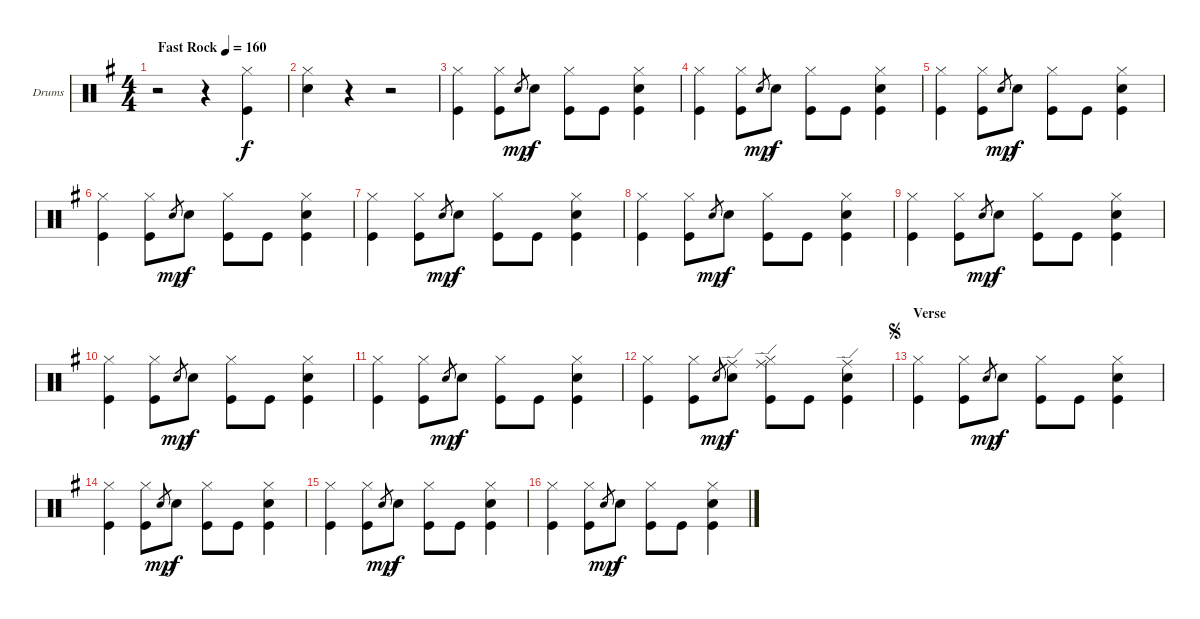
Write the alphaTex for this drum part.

\defaultSystemsLayout 4
\bracketExtendMode groupsimilarinstruments
\firstSystemTrackNameOrientation horizontal
\otherSystemsTrackNameOrientation horizontal
\track ("Drumkit" "Drums") {instrument percussion}
\staff {score}
\articulation defaults
\ts (4 4)
\tempo (160 "Fast Rock")
\clef neutral
\scale
1.07314
\ks g
r.2{dy f} r.4 ("Hi-Hat (closed)" "Kick (hit)").4 |
\scale
0.92686 ("Hi-Hat (closed)" "Snare (hit) 2").4 r.4 r.2 |
\scale
1.04288 ("Hi-Hat (closed)" "Kick (hit)").4 ("Hi-Hat (closed)" "Kick (hit)").8 "Snare (hit) 2".8{gr dy mp} "Snare (hit) 2".8{dy f} ("Hi-Hat (closed)" "Kick (hit)").8 "Kick (hit)".8 ("Hi-Hat (closed)" "Snare (hit) 2" "Kick (hit)").4 |
\scale
0.957125 ("Hi-Hat (closed)" "Kick (hit)").4 ("Hi-Hat (closed)" "Kick (hit)").8 "Snare (hit) 2".8{gr dy mp} "Snare (hit) 2".8{dy f} ("Hi-Hat (closed)" "Kick (hit)").8 "Kick (hit)".8 ("Hi-Hat (closed)" "Snare (hit) 2" "Kick (hit)").4 |
\scale
1.04288 ("Hi-Hat (closed)" "Kick (hit)").4 ("Hi-Hat (closed)" "Kick (hit)").8 "Snare (hit) 2".8{gr dy mp} "Snare (hit) 2".8{dy f} ("Hi-Hat (closed)" "Kick (hit)").8 "Kick (hit)".8 ("Hi-Hat (closed)" "Snare (hit) 2" "Kick (hit)").4 |
\scale
0.957125 ("Hi-Hat (closed)" "Kick (hit)").4 ("Hi-Hat (closed)" "Kick (hit)").8 "Snare (hit) 2".8{gr dy mp} "Snare (hit) 2".8{dy f} ("Hi-Hat (closed)" "Kick (hit)").8 "Kick (hit)".8 ("Hi-Hat (closed)" "Snare (hit) 2" "Kick (hit)").4 |
\scale
1.04288 ("Hi-Hat (closed)" "Kick (hit)").4 ("Hi-Hat (closed)" "Kick (hit)").8 "Snare (hit) 2".8{gr dy mp} "Snare (hit) 2".8{dy f} ("Hi-Hat (closed)" "Kick (hit)").8 "Kick (hit)".8 ("Hi-Hat (closed)" "Snare (hit) 2" "Kick (hit)").4 |
\scale
0.957125 ("Hi-Hat (closed)" "Kick (hit)").4 ("Hi-Hat (closed)" "Kick (hit)").8 "Snare (hit) 2".8{gr dy mp} "Snare (hit) 2".8{dy f} ("Hi-Hat (closed)" "Kick (hit)").8 "Kick (hit)".8 ("Hi-Hat (closed)" "Snare (hit) 2" "Kick (hit)").4 |
\scale
1.04288 ("Hi-Hat (closed)" "Kick (hit)").4 ("Hi-Hat (closed)" "Kick (hit)").8 "Snare (hit) 2".8{gr dy mp} "Snare (hit) 2".8{dy f} ("Hi-Hat (closed)" "Kick (hit)").8 "Kick (hit)".8 ("Hi-Hat (closed)" "Snare (hit) 2" "Kick (hit)").4 |
\scale
0.957125 ("Hi-Hat (closed)" "Kick (hit)").4 ("Hi-Hat (closed)" "Kick (hit)").8 "Snare (hit) 2".8{gr dy mp} "Snare (hit) 2".8{dy f} ("Hi-Hat (closed)" "Kick (hit)").8 "Kick (hit)".8 ("Hi-Hat (closed)" "Snare (hit) 2" "Kick (hit)").4 |
\scale
1.04288 ("Hi-Hat (closed)" "Kick (hit)").4 ("Hi-Hat (closed)" "Kick (hit)").8 "Snare (hit) 2".8{gr dy mp} "Snare (hit) 2".8{dy f} ("Hi-Hat (closed)" "Kick (hit)").8 "Kick (hit)".8 ("Hi-Hat (closed)" "Snare (hit) 2" "Kick (hit)").4 |
\scale
0.957125 ("Hi-Hat (closed)" "Kick (hit)").4 ("Hi-Hat (closed)" "Kick (hit)").8 "Snare (hit) 2".8{gr dy mp} ("Ride (edge)" "Snare (hit) 2").8{dy f} ("Hi-Hat (closed)" "Ride (edge)" "Kick (hit)").8 "Kick (hit)".8 ("Ride (edge)" "Snare (hit) 2" "Kick (hit)").4 |
\section ("" "Verse")
\jump segno
\scale
1.04288 ("Hi-Hat (closed)" "Kick (hit)").4 ("Hi-Hat (closed)" "Kick (hit)").8 "Snare (hit) 2".8{gr dy mp} "Snare (hit) 2".8{dy f} ("Hi-Hat (closed)" "Kick (hit)").8 "Kick (hit)".8 ("Hi-Hat (closed)" "Snare (hit) 2" "Kick (hit)").4 |
\scale
0.957125 ("Hi-Hat (closed)" "Kick (hit)").4 ("Hi-Hat (closed)" "Kick (hit)").8 "Snare (hit) 2".8{gr dy mp} "Snare (hit) 2".8{dy f} ("Hi-Hat (closed)" "Kick (hit)").8 "Kick (hit)".8 ("Hi-Hat (closed)" "Snare (hit) 2" "Kick (hit)").4 |
\scale
1.04288 ("Hi-Hat (closed)" "Kick (hit)").4 ("Hi-Hat (closed)" "Kick (hit)").8 "Snare (hit) 2".8{gr dy mp} "Snare (hit) 2".8{dy f} ("Hi-Hat (closed)" "Kick (hit)").8 "Kick (hit)".8 ("Hi-Hat (closed)" "Snare (hit) 2" "Kick (hit)").4 |
\scale
0.957125 ("Hi-Hat (closed)" "Kick (hit)").4 ("Hi-Hat (closed)" "Kick (hit)").8 "Snare (hit) 2".8{gr dy mp} "Snare (hit) 2".8{dy f} ("Hi-Hat (closed)" "Kick (hit)").8 "Kick (hit)".8 ("Hi-Hat (closed)" "Snare (hit) 2" "Kick (hit)").4
